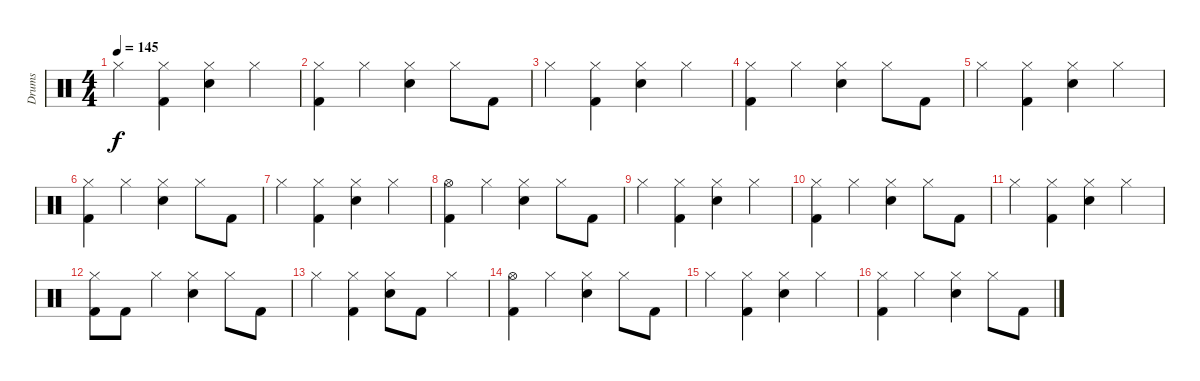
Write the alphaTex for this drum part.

\track ("Drums" "Drums") {instrument percussion}
\staff {score}
\articulation defaults
\ts (4 4)
\tempo 145
\clef neutral
\ks c "Hi-Hat (closed)".4{dy f}
("Hi-Hat (closed)" "Kick (hit) 2").4 ("Hi-Hat (closed)" "Electric Snare (hit)").4 "Hi-Hat (closed)".4 |
("Hi-Hat (closed)" "Kick (hit) 2").4 "Hi-Hat (closed)".4 ("Hi-Hat (closed)" "Electric Snare (hit)").4 "Hi-Hat (closed)".8 "Kick (hit) 2".8 |
"Hi-Hat (closed)".4 ("Hi-Hat (closed)" "Kick (hit) 2").4 ("Hi-Hat (closed)" "Electric Snare (hit)").4 "Hi-Hat (closed)".4 |
("Hi-Hat (closed)" "Kick (hit) 2").4 "Hi-Hat (closed)".4 ("Hi-Hat (closed)" "Electric Snare (hit)").4 "Hi-Hat (closed)".8 "Kick (hit) 2".8 |
"Hi-Hat (closed)".4 ("Hi-Hat (closed)" "Kick (hit) 2").4 ("Hi-Hat (closed)" "Electric Snare (hit)").4 "Hi-Hat (closed)".4 |
("Hi-Hat (closed)" "Kick (hit) 2").4 "Hi-Hat (closed)".4 ("Hi-Hat (closed)" "Electric Snare (hit)").4 "Hi-Hat (closed)".8 "Kick (hit) 2".8 |
"Hi-Hat (closed)".4 ("Hi-Hat (closed)" "Kick (hit) 2").4 ("Hi-Hat (closed)" "Electric Snare (hit)").4 "Hi-Hat (closed)".4 |
("Hi-Hat (open)" "Kick (hit) 2").4 "Hi-Hat (closed)".4 ("Hi-Hat (closed)" "Electric Snare (hit)").4 "Hi-Hat (closed)".8 "Kick (hit) 2".8 |
"Hi-Hat (closed)".4 ("Hi-Hat (closed)" "Kick (hit) 2").4 ("Hi-Hat (closed)" "Electric Snare (hit)").4 "Hi-Hat (closed)".4 |
("Hi-Hat (closed)" "Kick (hit) 2").4 "Hi-Hat (closed)".4 ("Hi-Hat (closed)" "Electric Snare (hit)").4 "Hi-Hat (closed)".8 "Kick (hit) 2".8 |
"Hi-Hat (closed)".4 ("Hi-Hat (closed)" "Kick (hit) 2").4 ("Hi-Hat (closed)" "Electric Snare (hit)").4 "Hi-Hat (closed)".4 |
("Hi-Hat (closed)" "Kick (hit) 2").8 "Kick (hit) 2".8 "Hi-Hat (closed)".4 ("Hi-Hat (closed)" "Electric Snare (hit)").4 "Hi-Hat (closed)".8 "Kick (hit) 2".8 |
"Hi-Hat (closed)".4 ("Hi-Hat (closed)" "Kick (hit) 2").4 ("Hi-Hat (closed)" "Electric Snare (hit)").8 "Kick (hit) 2".8 "Hi-Hat (closed)".4 |
("Hi-Hat (open)" "Kick (hit) 2").4 "Hi-Hat (closed)".4 ("Hi-Hat (closed)" "Electric Snare (hit)").4 "Hi-Hat (closed)".8 "Kick (hit) 2".8 |
"Hi-Hat (closed)".4 ("Hi-Hat (closed)" "Kick (hit) 2").4 ("Hi-Hat (closed)" "Electric Snare (hit)").4 "Hi-Hat (closed)".4 |
("Hi-Hat (closed)" "Kick (hit) 2").4 "Hi-Hat (closed)".4 ("Hi-Hat (closed)" "Electric Snare (hit)").4 "Hi-Hat (closed)".8 "Kick (hit) 2".8
